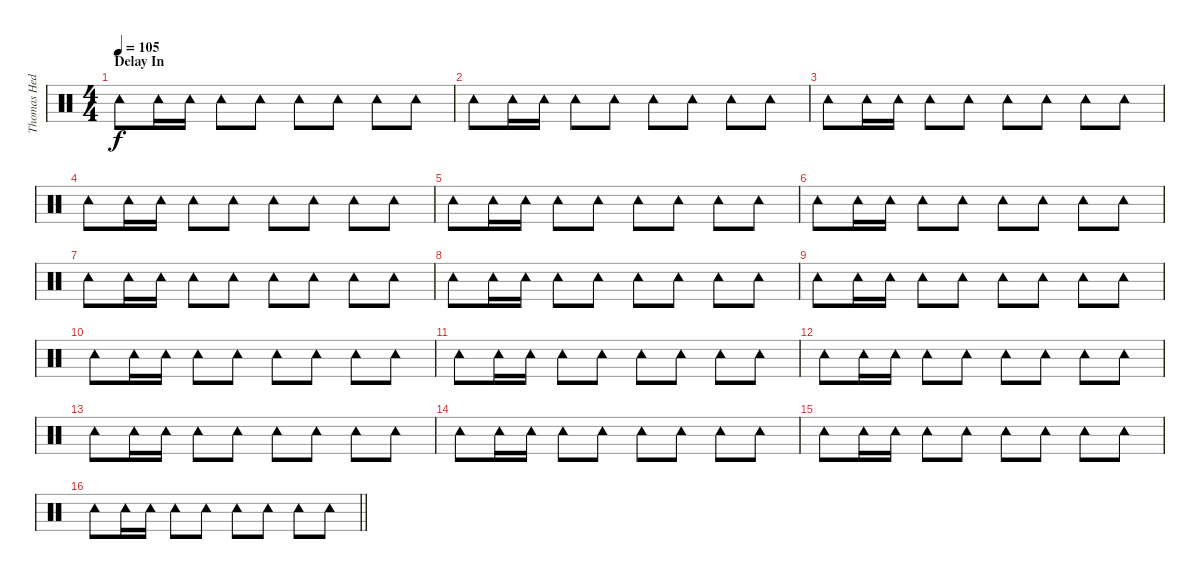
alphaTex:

\track ("Thomas Hedlund" "Thomas Hed") {instrument percussion}
\staff {score}
\articulation defaults
\ts (4 4)
\section ("" "Delay In")
\tempo 105
\clef neutral
\ks c "Tambourine (hit)".8{dy f} "Tambourine (hit)".16 "Tambourine (hit)".16 "Tambourine (hit)".8 "Tambourine (hit)".8 "Tambourine (hit)".8 "Tambourine (hit)".8 "Tambourine (hit)".8 "Tambourine (hit)".8
|
"Tambourine (hit)".8 "Tambourine (hit)".16 "Tambourine (hit)".16 "Tambourine (hit)".8 "Tambourine (hit)".8 "Tambourine (hit)".8 "Tambourine (hit)".8 "Tambourine (hit)".8 "Tambourine (hit)".8 |
"Tambourine (hit)".8 "Tambourine (hit)".16 "Tambourine (hit)".16 "Tambourine (hit)".8 "Tambourine (hit)".8 "Tambourine (hit)".8 "Tambourine (hit)".8 "Tambourine (hit)".8 "Tambourine (hit)".8 |
"Tambourine (hit)".8 "Tambourine (hit)".16 "Tambourine (hit)".16 "Tambourine (hit)".8 "Tambourine (hit)".8 "Tambourine (hit)".8 "Tambourine (hit)".8 "Tambourine (hit)".8 "Tambourine (hit)".8 |
"Tambourine (hit)".8 "Tambourine (hit)".16 "Tambourine (hit)".16 "Tambourine (hit)".8 "Tambourine (hit)".8 "Tambourine (hit)".8 "Tambourine (hit)".8 "Tambourine (hit)".8 "Tambourine (hit)".8 |
"Tambourine (hit)".8 "Tambourine (hit)".16 "Tambourine (hit)".16 "Tambourine (hit)".8 "Tambourine (hit)".8 "Tambourine (hit)".8 "Tambourine (hit)".8 "Tambourine (hit)".8 "Tambourine (hit)".8 |
"Tambourine (hit)".8 "Tambourine (hit)".16 "Tambourine (hit)".16 "Tambourine (hit)".8 "Tambourine (hit)".8 "Tambourine (hit)".8 "Tambourine (hit)".8 "Tambourine (hit)".8 "Tambourine (hit)".8 |
"Tambourine (hit)".8 "Tambourine (hit)".16 "Tambourine (hit)".16 "Tambourine (hit)".8 "Tambourine (hit)".8 "Tambourine (hit)".8 "Tambourine (hit)".8 "Tambourine (hit)".8 "Tambourine (hit)".8 |
"Tambourine (hit)".8 "Tambourine (hit)".16 "Tambourine (hit)".16 "Tambourine (hit)".8 "Tambourine (hit)".8 "Tambourine (hit)".8 "Tambourine (hit)".8 "Tambourine (hit)".8 "Tambourine (hit)".8 |
"Tambourine (hit)".8 "Tambourine (hit)".16 "Tambourine (hit)".16 "Tambourine (hit)".8 "Tambourine (hit)".8 "Tambourine (hit)".8 "Tambourine (hit)".8 "Tambourine (hit)".8 "Tambourine (hit)".8 |
"Tambourine (hit)".8 "Tambourine (hit)".16 "Tambourine (hit)".16 "Tambourine (hit)".8 "Tambourine (hit)".8 "Tambourine (hit)".8 "Tambourine (hit)".8 "Tambourine (hit)".8 "Tambourine (hit)".8 |
"Tambourine (hit)".8 "Tambourine (hit)".16 "Tambourine (hit)".16 "Tambourine (hit)".8 "Tambourine (hit)".8 "Tambourine (hit)".8 "Tambourine (hit)".8 "Tambourine (hit)".8 "Tambourine (hit)".8 |
"Tambourine (hit)".8 "Tambourine (hit)".16 "Tambourine (hit)".16 "Tambourine (hit)".8 "Tambourine (hit)".8 "Tambourine (hit)".8 "Tambourine (hit)".8 "Tambourine (hit)".8 "Tambourine (hit)".8 |
"Tambourine (hit)".8 "Tambourine (hit)".16 "Tambourine (hit)".16 "Tambourine (hit)".8 "Tambourine (hit)".8 "Tambourine (hit)".8 "Tambourine (hit)".8 "Tambourine (hit)".8 "Tambourine (hit)".8 |
"Tambourine (hit)".8 "Tambourine (hit)".16 "Tambourine (hit)".16 "Tambourine (hit)".8 "Tambourine (hit)".8 "Tambourine (hit)".8 "Tambourine (hit)".8 "Tambourine (hit)".8 "Tambourine (hit)".8 |
\barLineRight lightlight "Tambourine (hit)".8 "Tambourine (hit)".16 "Tambourine (hit)".16 "Tambourine (hit)".8 "Tambourine (hit)".8 "Tambourine (hit)".8 "Tambourine (hit)".8 "Tambourine (hit)".8 "Tambourine (hit)".8
